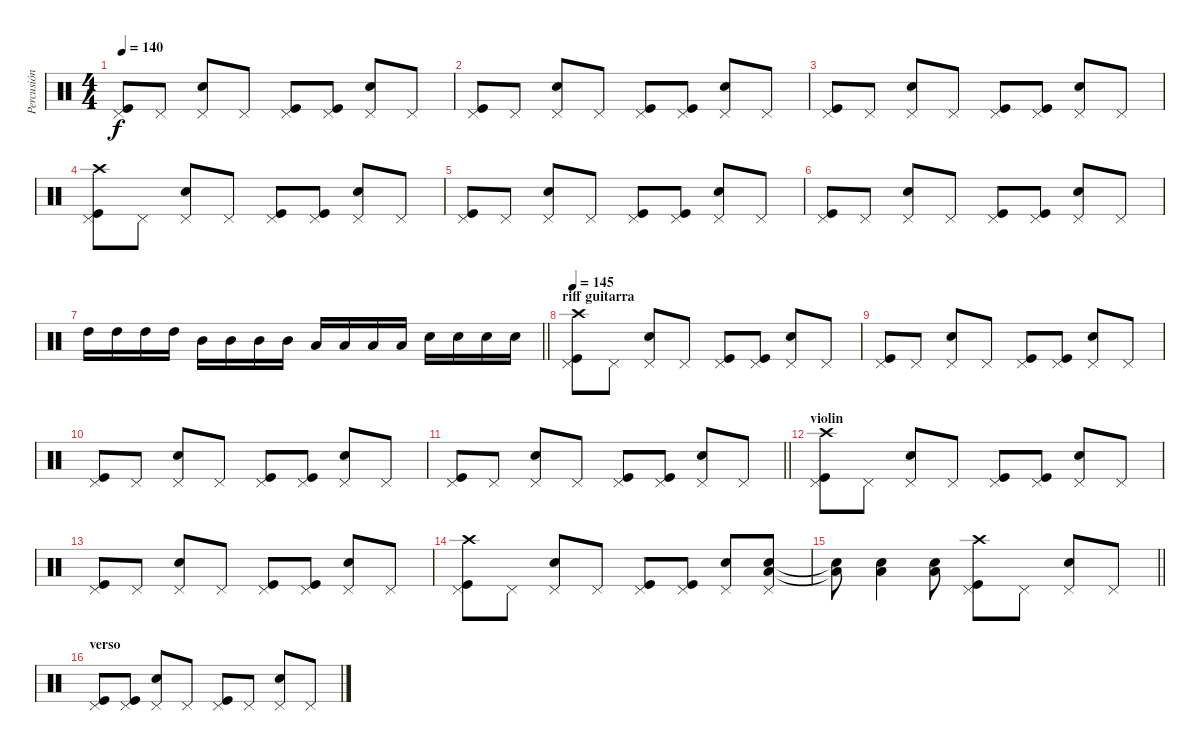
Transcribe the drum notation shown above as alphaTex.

\track ("Percusión" "Percusión") {instrument percussion}
\staff {score}
\articulation defaults
\ts (4 4)
\tempo 140
\clef neutral
\ks c
("Kick (hit)" "Pedal Hi-Hat (hit)").8{dy f} "Pedal Hi-Hat (hit)".8 ("Snare (hit) 2" "Pedal Hi-Hat (hit)").8 "Pedal Hi-Hat (hit)".8 ("Kick (hit)" "Pedal Hi-Hat (hit)").8 ("Kick (hit)" "Pedal Hi-Hat (hit)").8 ("Snare (hit) 2" "Pedal Hi-Hat (hit)").8 "Pedal Hi-Hat (hit)".8 |
("Kick (hit)" "Pedal Hi-Hat (hit)").8 "Pedal Hi-Hat (hit)".8 ("Snare (hit) 2" "Pedal Hi-Hat (hit)").8 "Pedal Hi-Hat (hit)".8 ("Kick (hit)" "Pedal Hi-Hat (hit)").8 ("Kick (hit)" "Pedal Hi-Hat (hit)").8 ("Snare (hit) 2" "Pedal Hi-Hat (hit)").8 "Pedal Hi-Hat (hit)".8 |
("Kick (hit)" "Pedal Hi-Hat (hit)").8 "Pedal Hi-Hat (hit)".8 ("Snare (hit) 2" "Pedal Hi-Hat (hit)").8 "Pedal Hi-Hat (hit)".8 ("Kick (hit)" "Pedal Hi-Hat (hit)").8 ("Kick (hit)" "Pedal Hi-Hat (hit)").8 ("Snare (hit) 2" "Pedal Hi-Hat (hit)").8 "Pedal Hi-Hat (hit)".8 |
("Crash high (hit)" "Kick (hit)" "Pedal Hi-Hat (hit)").8 "Pedal Hi-Hat (hit)".8 ("Snare (hit) 2" "Pedal Hi-Hat (hit)").8 "Pedal Hi-Hat (hit)".8 ("Kick (hit)" "Pedal Hi-Hat (hit)").8 ("Kick (hit)" "Pedal Hi-Hat (hit)").8 ("Snare (hit) 2" "Pedal Hi-Hat (hit)").8 "Pedal Hi-Hat (hit)".8 |
("Kick (hit)" "Pedal Hi-Hat (hit)").8 "Pedal Hi-Hat (hit)".8 ("Snare (hit) 2" "Pedal Hi-Hat (hit)").8 "Pedal Hi-Hat (hit)".8 ("Kick (hit)" "Pedal Hi-Hat (hit)").8 ("Kick (hit)" "Pedal Hi-Hat (hit)").8 ("Snare (hit) 2" "Pedal Hi-Hat (hit)").8 "Pedal Hi-Hat (hit)".8 |
("Kick (hit)" "Pedal Hi-Hat (hit)").8 "Pedal Hi-Hat (hit)".8 ("Snare (hit) 2" "Pedal Hi-Hat (hit)").8 "Pedal Hi-Hat (hit)".8 ("Kick (hit)" "Pedal Hi-Hat (hit)").8 ("Kick (hit)" "Pedal Hi-Hat (hit)").8 ("Snare (hit) 2" "Pedal Hi-Hat (hit)").8 "Pedal Hi-Hat (hit)".8 |
\barLineRight lightlight "High Tom (hit)".16 "High Tom (hit)".16 "High Tom (hit)".16 "High Tom (hit)".16 "Mid Tom (hit)".16 "Mid Tom (hit)".16 "Mid Tom (hit)".16 "Mid Tom (hit)".16 "Low Tom (hit)".16 "Low Tom (hit)".16 "Low Tom (hit)".16 "Low Tom (hit)".16 "Snare (hit) 2".16 "Snare (hit) 2".16 "Snare (hit) 2".16 "Snare (hit) 2".16
|
\section ("" "riff guitarra")
\tempo 145
("Crash high (hit)" "Kick (hit)" "Pedal Hi-Hat (hit)").8 "Pedal Hi-Hat (hit)".8 ("Snare (hit) 2" "Pedal Hi-Hat (hit)").8 "Pedal Hi-Hat (hit)".8 ("Kick (hit)" "Pedal Hi-Hat (hit)").8 ("Kick (hit)" "Pedal Hi-Hat (hit)").8 ("Snare (hit) 2" "Pedal Hi-Hat (hit)").8 "Pedal Hi-Hat (hit)".8 |
("Kick (hit)" "Pedal Hi-Hat (hit)").8 "Pedal Hi-Hat (hit)".8 ("Snare (hit) 2" "Pedal Hi-Hat (hit)").8 "Pedal Hi-Hat (hit)".8 ("Kick (hit)" "Pedal Hi-Hat (hit)").8 ("Kick (hit)" "Pedal Hi-Hat (hit)").8 ("Snare (hit) 2" "Pedal Hi-Hat (hit)").8 "Pedal Hi-Hat (hit)".8 |
("Kick (hit)" "Pedal Hi-Hat (hit)").8 "Pedal Hi-Hat (hit)".8 ("Snare (hit) 2" "Pedal Hi-Hat (hit)").8 "Pedal Hi-Hat (hit)".8 ("Kick (hit)" "Pedal Hi-Hat (hit)").8 ("Kick (hit)" "Pedal Hi-Hat (hit)").8 ("Snare (hit) 2" "Pedal Hi-Hat (hit)").8 "Pedal Hi-Hat (hit)".8 |
\barLineRight lightlight
("Kick (hit)" "Pedal Hi-Hat (hit)").8 "Pedal Hi-Hat (hit)".8 ("Snare (hit) 2" "Pedal Hi-Hat (hit)").8 "Pedal Hi-Hat (hit)".8 ("Kick (hit)" "Pedal Hi-Hat (hit)").8 ("Kick (hit)" "Pedal Hi-Hat (hit)").8 ("Snare (hit) 2" "Pedal Hi-Hat (hit)").8 "Pedal Hi-Hat (hit)".8 |
\section ("" "violin")
("Crash high (hit)" "Kick (hit)" "Pedal Hi-Hat (hit)").8 "Pedal Hi-Hat (hit)".8 ("Snare (hit) 2" "Pedal Hi-Hat (hit)").8 "Pedal Hi-Hat (hit)".8 ("Kick (hit)" "Pedal Hi-Hat (hit)").8 ("Kick (hit)" "Pedal Hi-Hat (hit)").8 ("Snare (hit) 2" "Pedal Hi-Hat (hit)").8 "Pedal Hi-Hat (hit)".8 |
("Kick (hit)" "Pedal Hi-Hat (hit)").8 "Pedal Hi-Hat (hit)".8 ("Snare (hit) 2" "Pedal Hi-Hat (hit)").8 "Pedal Hi-Hat (hit)".8 ("Kick (hit)" "Pedal Hi-Hat (hit)").8 ("Kick (hit)" "Pedal Hi-Hat (hit)").8 ("Snare (hit) 2" "Pedal Hi-Hat (hit)").8 "Pedal Hi-Hat (hit)".8 |
("Crash high (hit)" "Kick (hit)" "Pedal Hi-Hat (hit)").8 "Pedal Hi-Hat (hit)".8 ("Snare (hit) 2" "Pedal Hi-Hat (hit)").8 "Pedal Hi-Hat (hit)".8 ("Kick (hit)" "Pedal Hi-Hat (hit)").8 ("Kick (hit)" "Pedal Hi-Hat (hit)").8 ("Snare (hit) 2" "Pedal Hi-Hat (hit)").8 ("Snare (hit) 2" "Low Tom (hit)" "Pedal Hi-Hat (hit)").8 |
\barLineRight lightlight
("Snare (hit) 2"{t} "Low Tom (hit)"{t}).8 ("Snare (hit) 2" "Low Tom (hit)").4 ("Low Tom (hit)" "Snare (hit) 2").8 ("Crash high (hit)" "Kick (hit)" "Pedal Hi-Hat (hit)").8 "Pedal Hi-Hat (hit)".8 ("Snare (hit) 2" "Pedal Hi-Hat (hit)").8 "Pedal Hi-Hat (hit)".8 |
\section ("" "verso")
("Kick (hit)" "Pedal Hi-Hat (hit)").8 ("Kick (hit)" "Pedal Hi-Hat (hit)").8 ("Snare (hit) 2" "Pedal Hi-Hat (hit)").8 "Pedal Hi-Hat (hit)".8 ("Kick (hit)" "Pedal Hi-Hat (hit)").8 "Pedal Hi-Hat (hit)".8 ("Snare (hit) 2" "Pedal Hi-Hat (hit)").8 "Pedal Hi-Hat (hit)".8
